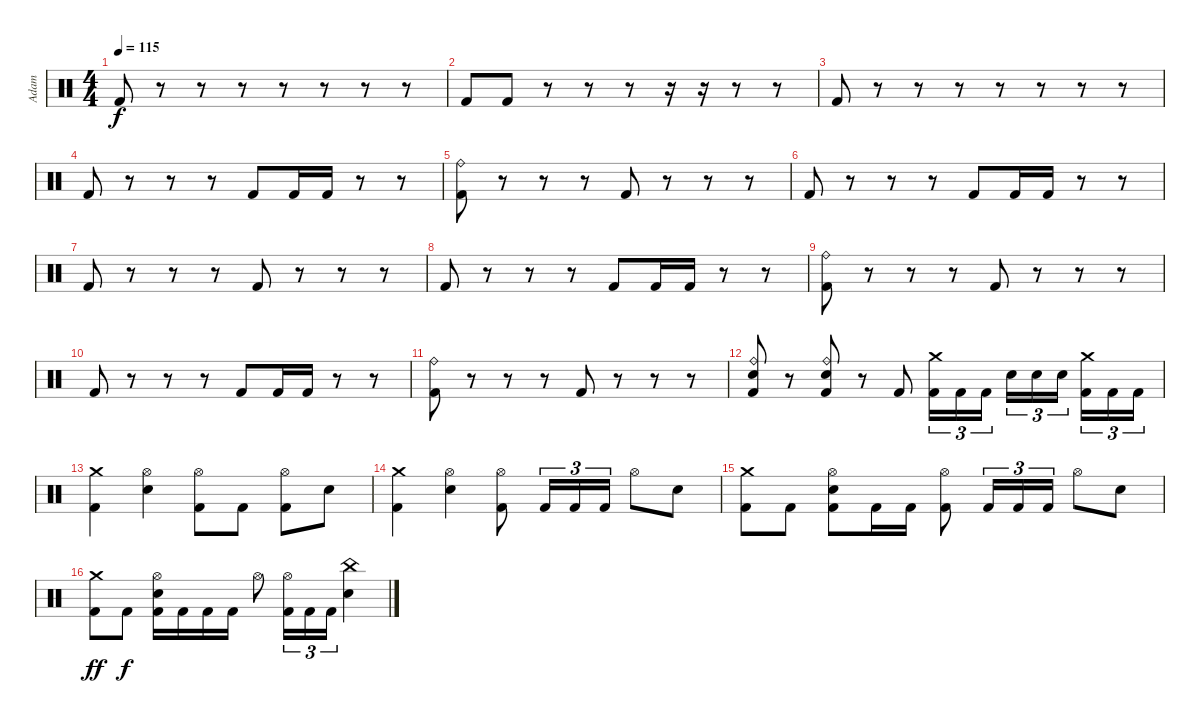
\track ("Adam" "Adam") {instrument percussion}
\staff {score}
\articulation defaults
\ts (4 4)
\tempo 115
\clef neutral
\ks c "Kick (hit) 2".8{dy f}
r.8 r.8 r.8 r.8 r.8 r.8 r.8 |
"Kick (hit) 2".8 "Kick (hit) 2".8 r.8 r.8 r.8 r.16 r.16 r.8 r.8 |
"Kick (hit) 2".8 r.8 r.8 r.8 r.8 r.8 r.8 r.8 |
"Kick (hit) 2".8 r.8 r.8 r.8 "Kick (hit) 2".8 "Kick (hit) 2".16 "Kick (hit) 2".16 r.8 r.8 |
("Ride (bell)" "Kick (hit) 2").8 r.8 r.8 r.8 "Kick (hit) 2".8 r.8 r.8 r.8 |
"Kick (hit) 2".8 r.8 r.8 r.8 "Kick (hit) 2".8 "Kick (hit) 2".16 "Kick (hit) 2".16 r.8 r.8 |
"Kick (hit) 2".8 r.8 r.8 r.8 "Kick (hit) 2".8 r.8 r.8 r.8 |
"Kick (hit) 2".8 r.8 r.8 r.8 "Kick (hit) 2".8 "Kick (hit) 2".16 "Kick (hit) 2".16 r.8 r.8 |
("Ride (bell)" "Kick (hit) 2").8 r.8 r.8 r.8 "Kick (hit) 2".8 r.8 r.8 r.8 |
"Kick (hit) 2".8 r.8 r.8 r.8 "Kick (hit) 2".8 "Kick (hit) 2".16 "Kick (hit) 2".16 r.8 r.8 |
("Ride (bell)" "Kick (hit) 2").8 r.8 r.8 r.8 "Kick (hit) 2".8 r.8 r.8 r.8 |
("Ride (bell)" "Electric Snare (hit)" "Kick (hit) 2").8 r.8 ("Ride (bell)" "Electric Snare (hit)" "Kick (hit) 2").8 r.8 "Kick (hit) 2".8 ("Crash medium (hit)" "Kick (hit) 2").16{tu (3 2)} "Kick (hit) 2".16{tu (3 2)} "Kick (hit) 2".16{tu (3 2)} "Electric Snare (hit)".16{tu (3 2)} "Electric Snare (hit)".16{tu (3 2)} "Electric Snare (hit)".16{tu (3 2)} ("Crash medium (hit)" "Kick (hit) 2").16{tu (3 2)} "Kick (hit) 2".16{tu (3 2)} "Kick (hit) 2".16{tu (3 2)} |
("Crash medium (hit)" "Kick (hit) 2").4 ("Hi-Hat (open)" "Electric Snare (hit)").4 ("Hi-Hat (open)" "Kick (hit) 2").8 "Kick (hit) 2".8 ("Hi-Hat (open)" "Kick (hit) 2").8 "Electric Snare (hit)".8 |
("Crash medium (hit)" "Kick (hit) 2").4 ("Hi-Hat (open)" "Electric Snare (hit)").4 ("Hi-Hat (open)" "Kick (hit) 2").8 "Kick (hit) 2".16{tu (3 2)} "Kick (hit) 2".16{tu (3 2)} "Kick (hit) 2".16{tu (3 2)} "Hi-Hat (open)".8 "Electric Snare (hit)".8 |
("Crash medium (hit)" "Kick (hit) 2").8 "Kick (hit) 2".8 ("Hi-Hat (open)" "Electric Snare (hit)" "Kick (hit) 2").8 "Kick (hit) 2".16 "Kick (hit) 2".16 ("Hi-Hat (open)" "Kick (hit) 2").8 "Kick (hit) 2".16{tu (3 2)} "Kick (hit) 2".16{tu (3 2)} "Kick (hit) 2".16{tu (3 2)} "Hi-Hat (open)".8 "Electric Snare (hit)".8 |
("Crash medium (hit)" "Kick (hit) 2").8{dy ff} "Kick (hit) 2".8{dy f} ("Hi-Hat (open)" "Electric Snare (hit)" "Kick (hit) 2").16 "Kick (hit) 2".16 "Kick (hit) 2".16 "Kick (hit) 2".16 "Hi-Hat (open)".8 ("Hi-Hat (open)" "Kick (hit) 2").16{tu (3 2)} "Kick (hit) 2".16{tu (3 2)} "Kick (hit) 2".16{tu (3 2)} ("China (hit)" "Electric Snare (hit)").4
